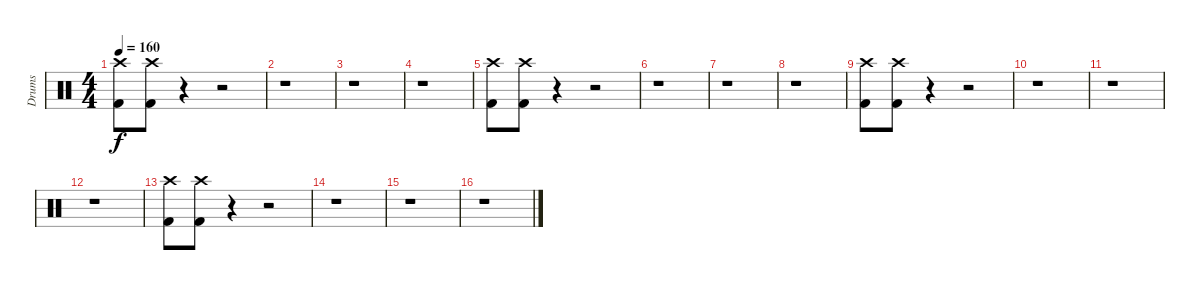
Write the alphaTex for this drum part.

\track ("Drums" "Drums") {instrument percussion}
\staff {score}
\articulation defaults
\ts (4 4)
\tempo 160
\clef neutral
\ks c
("Crash high (hit)" "Kick (hit) 2").8{dy f} ("Crash high (hit)" "Kick (hit) 2").8 r.4 r.2 |
r.1 |
r.1 |
r.1 |
("Crash high (hit)" "Kick (hit) 2").8 ("Crash high (hit)" "Kick (hit) 2").8 r.4 r.2 |
r.1 |
r.1 |
r.1 |
("Crash high (hit)" "Kick (hit) 2").8 ("Crash high (hit)" "Kick (hit) 2").8 r.4 r.2 |
r.1 |
r.1 |
r.1 |
("Crash high (hit)" "Kick (hit) 2").8 ("Crash high (hit)" "Kick (hit) 2").8 r.4 r.2 |
r.1 |
r.1 |
r.1
